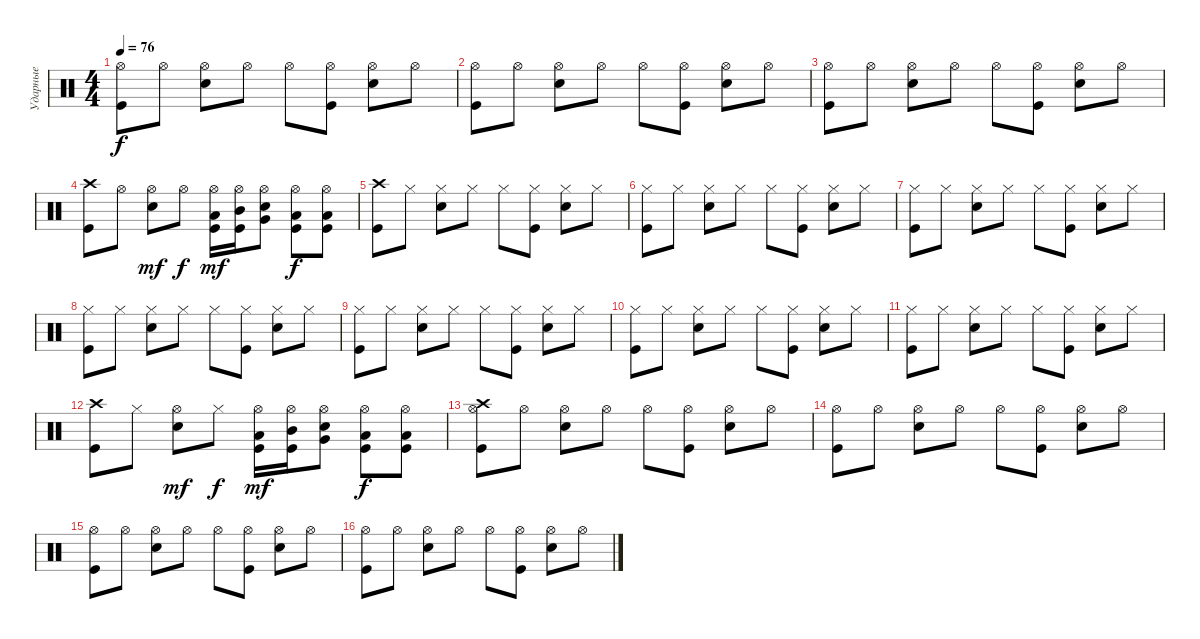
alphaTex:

\track ("Ударные" "Ударные") {instrument percussion}
\staff {score}
\articulation defaults
\ts (4 4)
\tempo 76
\clef neutral
\ks c
("Hi-Hat (open)" "Kick (hit)").8{dy f} "Hi-Hat (open)".8 ("Hi-Hat (open)" "Electric Snare (hit)").8 "Hi-Hat (open)".8 "Hi-Hat (open)".8 ("Hi-Hat (open)" "Kick (hit)").8 ("Hi-Hat (open)" "Electric Snare (hit)").8 "Hi-Hat (open)".8 |
("Hi-Hat (open)" "Kick (hit)").8 "Hi-Hat (open)".8 ("Hi-Hat (open)" "Electric Snare (hit)").8 "Hi-Hat (open)".8 "Hi-Hat (open)".8 ("Hi-Hat (open)" "Kick (hit)").8 ("Hi-Hat (open)" "Electric Snare (hit)").8 "Hi-Hat (open)".8 |
("Hi-Hat (open)" "Kick (hit)").8 "Hi-Hat (open)".8 ("Hi-Hat (open)" "Electric Snare (hit)").8 "Hi-Hat (open)".8 "Hi-Hat (open)".8 ("Hi-Hat (open)" "Kick (hit)").8 ("Hi-Hat (open)" "Electric Snare (hit)").8 "Hi-Hat (open)".8 |
("Kick (hit)" "Crash high (hit)").8 "Hi-Hat (open)".8 ("Electric Snare (hit)" "Hi-Hat (open)").8{dy mf} "Hi-Hat (open)".8{dy f} ("Kick (hit)" "Hi-Hat (open)" "Low Tom (hit)").16{dy mf} ("Kick (hit)" "Hi-Hat (open)" "Mid Tom (hit)").16 ("Electric Snare (hit)" "Hi-Hat (open)" "Very Low Tom (hit)").8 ("Kick (hit)" "Hi-Hat (open)" "Low Floor Tom (hit)").8{dy f} ("Kick (hit)" "Hi-Hat (open)" "Low Floor Tom (hit)").8 |
("Crash high (hit)" "Kick (hit)").8 "Hi-Hat (closed)".8 ("Hi-Hat (closed)" "Electric Snare (hit)").8 "Hi-Hat (closed)".8 "Hi-Hat (closed)".8 ("Hi-Hat (closed)" "Kick (hit)").8 ("Hi-Hat (closed)" "Electric Snare (hit)").8 "Hi-Hat (closed)".8 |
("Hi-Hat (closed)" "Kick (hit)").8 "Hi-Hat (closed)".8 ("Hi-Hat (closed)" "Electric Snare (hit)").8 "Hi-Hat (closed)".8 "Hi-Hat (closed)".8 ("Hi-Hat (closed)" "Kick (hit)").8 ("Hi-Hat (closed)" "Electric Snare (hit)").8 "Hi-Hat (closed)".8 |
("Hi-Hat (closed)" "Kick (hit)").8 "Hi-Hat (closed)".8 ("Hi-Hat (closed)" "Electric Snare (hit)").8 "Hi-Hat (closed)".8 "Hi-Hat (closed)".8 ("Hi-Hat (closed)" "Kick (hit)").8 ("Hi-Hat (closed)" "Electric Snare (hit)").8 "Hi-Hat (closed)".8 |
("Hi-Hat (closed)" "Kick (hit)").8 "Hi-Hat (closed)".8 ("Hi-Hat (closed)" "Electric Snare (hit)").8 "Hi-Hat (closed)".8 "Hi-Hat (closed)".8 ("Hi-Hat (closed)" "Kick (hit)").8 ("Hi-Hat (closed)" "Electric Snare (hit)").8 "Hi-Hat (closed)".8 |
("Hi-Hat (closed)" "Kick (hit)").8 "Hi-Hat (closed)".8 ("Hi-Hat (closed)" "Electric Snare (hit)").8 "Hi-Hat (closed)".8 "Hi-Hat (closed)".8 ("Hi-Hat (closed)" "Kick (hit)").8 ("Hi-Hat (closed)" "Electric Snare (hit)").8 "Hi-Hat (closed)".8 |
("Hi-Hat (closed)" "Kick (hit)").8 "Hi-Hat (closed)".8 ("Hi-Hat (closed)" "Electric Snare (hit)").8 "Hi-Hat (closed)".8 "Hi-Hat (closed)".8 ("Hi-Hat (closed)" "Kick (hit)").8 ("Hi-Hat (closed)" "Electric Snare (hit)").8 "Hi-Hat (closed)".8 |
("Hi-Hat (closed)" "Kick (hit)").8 "Hi-Hat (closed)".8 ("Hi-Hat (closed)" "Electric Snare (hit)").8 "Hi-Hat (closed)".8 "Hi-Hat (closed)".8 ("Hi-Hat (closed)" "Kick (hit)").8 ("Hi-Hat (closed)" "Electric Snare (hit)").8 "Hi-Hat (closed)".8 |
("Kick (hit)" "Crash high (hit)").8 "Hi-Hat (closed)".8 ("Electric Snare (hit)" "Hi-Hat (open)").8{dy mf} "Hi-Hat (closed)".8{dy f} ("Kick (hit)" "Hi-Hat (open)" "Low Tom (hit)").16{dy mf} ("Kick (hit)" "Hi-Hat (open)" "Mid Tom (hit)").16 ("Electric Snare (hit)" "Hi-Hat (open)" "Very Low Tom (hit)").8 ("Kick (hit)" "Hi-Hat (open)" "Low Floor Tom (hit)").8{dy f} ("Kick (hit)" "Hi-Hat (open)" "Low Floor Tom (hit)").8 |
("Hi-Hat (open)" "Crash high (hit)" "Kick (hit)").8 "Hi-Hat (open)".8 ("Hi-Hat (open)" "Electric Snare (hit)").8 "Hi-Hat (open)".8 "Hi-Hat (open)".8 ("Hi-Hat (open)" "Kick (hit)").8 ("Hi-Hat (open)" "Electric Snare (hit)").8 "Hi-Hat (open)".8 |
("Hi-Hat (open)" "Kick (hit)").8 "Hi-Hat (open)".8 ("Hi-Hat (open)" "Electric Snare (hit)").8 "Hi-Hat (open)".8 "Hi-Hat (open)".8 ("Hi-Hat (open)" "Kick (hit)").8 ("Hi-Hat (open)" "Electric Snare (hit)").8 "Hi-Hat (open)".8 |
("Hi-Hat (open)" "Kick (hit)").8 "Hi-Hat (open)".8 ("Hi-Hat (open)" "Electric Snare (hit)").8 "Hi-Hat (open)".8 "Hi-Hat (open)".8 ("Hi-Hat (open)" "Kick (hit)").8 ("Hi-Hat (open)" "Electric Snare (hit)").8 "Hi-Hat (open)".8 |
("Hi-Hat (open)" "Kick (hit)").8 "Hi-Hat (open)".8 ("Hi-Hat (open)" "Electric Snare (hit)").8 "Hi-Hat (open)".8 "Hi-Hat (open)".8 ("Hi-Hat (open)" "Kick (hit)").8 ("Hi-Hat (open)" "Electric Snare (hit)").8 "Hi-Hat (open)".8
